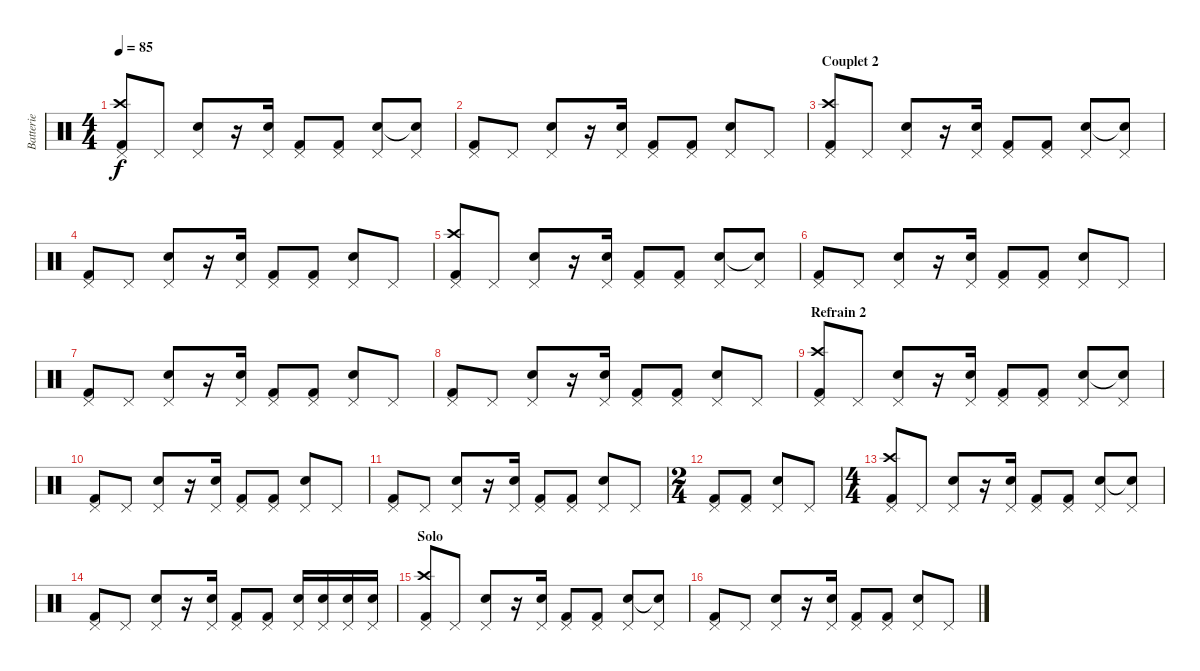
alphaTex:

\track ("Batterie" "Batterie") {instrument percussion}
\staff {score}
\articulation defaults
\ts (4 4)
\tempo 85
\clef neutral
\ks c
("Pedal Hi-Hat (hit)" "Crash high (hit)" "Kick (hit) 2").8{dy f} "Pedal Hi-Hat (hit)".8 ("Pedal Hi-Hat (hit)" "Electric Snare (hit)").8 r.16 ("Pedal Hi-Hat (hit)" "Electric Snare (hit)").16 ("Pedal Hi-Hat (hit)" "Kick (hit) 2").8 ("Pedal Hi-Hat (hit)" "Kick (hit) 2").8 ("Pedal Hi-Hat (hit)" "Electric Snare (hit)").8 ("Pedal Hi-Hat (hit)" "Snare (hit)"{t}).8 |
("Pedal Hi-Hat (hit)" "Kick (hit) 2").8 "Pedal Hi-Hat (hit)".8 ("Pedal Hi-Hat (hit)" "Electric Snare (hit)").8 r.16 ("Pedal Hi-Hat (hit)" "Electric Snare (hit)").16 ("Pedal Hi-Hat (hit)" "Kick (hit) 2").8 ("Pedal Hi-Hat (hit)" "Kick (hit) 2").8 ("Pedal Hi-Hat (hit)" "Electric Snare (hit)").8 "Pedal Hi-Hat (hit)".8 |
\section ("" "Couplet 2")
("Pedal Hi-Hat (hit)" "Crash high (hit)" "Kick (hit) 2").8 "Pedal Hi-Hat (hit)".8 ("Pedal Hi-Hat (hit)" "Electric Snare (hit)").8 r.16 ("Pedal Hi-Hat (hit)" "Electric Snare (hit)").16 ("Pedal Hi-Hat (hit)" "Kick (hit) 2").8 ("Pedal Hi-Hat (hit)" "Kick (hit) 2").8 ("Pedal Hi-Hat (hit)" "Electric Snare (hit)").8 ("Pedal Hi-Hat (hit)" "Snare (hit)"{t}).8 |
("Pedal Hi-Hat (hit)" "Kick (hit) 2").8 "Pedal Hi-Hat (hit)".8 ("Pedal Hi-Hat (hit)" "Electric Snare (hit)").8 r.16 ("Pedal Hi-Hat (hit)" "Electric Snare (hit)").16 ("Pedal Hi-Hat (hit)" "Kick (hit) 2").8 ("Pedal Hi-Hat (hit)" "Kick (hit) 2").8 ("Pedal Hi-Hat (hit)" "Electric Snare (hit)").8 "Pedal Hi-Hat (hit)".8 |
("Pedal Hi-Hat (hit)" "Crash high (hit)" "Kick (hit) 2").8 "Pedal Hi-Hat (hit)".8 ("Pedal Hi-Hat (hit)" "Electric Snare (hit)").8 r.16 ("Pedal Hi-Hat (hit)" "Electric Snare (hit)").16 ("Pedal Hi-Hat (hit)" "Kick (hit) 2").8 ("Pedal Hi-Hat (hit)" "Kick (hit) 2").8 ("Pedal Hi-Hat (hit)" "Electric Snare (hit)").8 ("Pedal Hi-Hat (hit)" "Snare (hit)"{t}).8 |
("Pedal Hi-Hat (hit)" "Kick (hit) 2").8 "Pedal Hi-Hat (hit)".8 ("Pedal Hi-Hat (hit)" "Electric Snare (hit)").8 r.16 ("Pedal Hi-Hat (hit)" "Electric Snare (hit)").16 ("Pedal Hi-Hat (hit)" "Kick (hit) 2").8 ("Pedal Hi-Hat (hit)" "Kick (hit) 2").8 ("Pedal Hi-Hat (hit)" "Electric Snare (hit)").8 "Pedal Hi-Hat (hit)".8 |
("Pedal Hi-Hat (hit)" "Kick (hit) 2").8 "Pedal Hi-Hat (hit)".8 ("Pedal Hi-Hat (hit)" "Electric Snare (hit)").8 r.16 ("Pedal Hi-Hat (hit)" "Electric Snare (hit)").16 ("Pedal Hi-Hat (hit)" "Kick (hit) 2").8 ("Pedal Hi-Hat (hit)" "Kick (hit) 2").8 ("Pedal Hi-Hat (hit)" "Electric Snare (hit)").8 "Pedal Hi-Hat (hit)".8 |
("Pedal Hi-Hat (hit)" "Kick (hit) 2").8 "Pedal Hi-Hat (hit)".8 ("Pedal Hi-Hat (hit)" "Electric Snare (hit)").8 r.16 ("Pedal Hi-Hat (hit)" "Electric Snare (hit)").16 ("Pedal Hi-Hat (hit)" "Kick (hit) 2").8 ("Pedal Hi-Hat (hit)" "Kick (hit) 2").8 ("Pedal Hi-Hat (hit)" "Electric Snare (hit)").8 "Pedal Hi-Hat (hit)".8 |
\section ("" "Refrain 2")
("Pedal Hi-Hat (hit)" "Crash high (hit)" "Kick (hit) 2").8 "Pedal Hi-Hat (hit)".8 ("Pedal Hi-Hat (hit)" "Electric Snare (hit)").8 r.16 ("Pedal Hi-Hat (hit)" "Electric Snare (hit)").16 ("Pedal Hi-Hat (hit)" "Kick (hit) 2").8 ("Pedal Hi-Hat (hit)" "Kick (hit) 2").8 ("Pedal Hi-Hat (hit)" "Electric Snare (hit)").8 ("Pedal Hi-Hat (hit)" "Snare (hit)"{t}).8 |
("Pedal Hi-Hat (hit)" "Kick (hit) 2").8 "Pedal Hi-Hat (hit)".8 ("Pedal Hi-Hat (hit)" "Electric Snare (hit)").8 r.16 ("Pedal Hi-Hat (hit)" "Electric Snare (hit)").16 ("Pedal Hi-Hat (hit)" "Kick (hit) 2").8 ("Pedal Hi-Hat (hit)" "Kick (hit) 2").8 ("Pedal Hi-Hat (hit)" "Electric Snare (hit)").8 "Pedal Hi-Hat (hit)".8 |
("Pedal Hi-Hat (hit)" "Kick (hit) 2").8 "Pedal Hi-Hat (hit)".8 ("Pedal Hi-Hat (hit)" "Electric Snare (hit)").8 r.16 ("Pedal Hi-Hat (hit)" "Electric Snare (hit)").16 ("Pedal Hi-Hat (hit)" "Kick (hit) 2").8 ("Pedal Hi-Hat (hit)" "Kick (hit) 2").8 ("Pedal Hi-Hat (hit)" "Electric Snare (hit)").8 "Pedal Hi-Hat (hit)".8 |
\ts (2 4)
("Pedal Hi-Hat (hit)" "Kick (hit) 2").8 ("Pedal Hi-Hat (hit)" "Kick (hit) 2").8 ("Pedal Hi-Hat (hit)" "Electric Snare (hit)").8 "Pedal Hi-Hat (hit)".8 |
\ts (4 4)
("Pedal Hi-Hat (hit)" "Crash high (hit)" "Kick (hit) 2").8 "Pedal Hi-Hat (hit)".8 ("Pedal Hi-Hat (hit)" "Electric Snare (hit)").8 r.16 ("Pedal Hi-Hat (hit)" "Electric Snare (hit)").16 ("Pedal Hi-Hat (hit)" "Kick (hit) 2").8 ("Pedal Hi-Hat (hit)" "Kick (hit) 2").8 ("Pedal Hi-Hat (hit)" "Electric Snare (hit)").8 ("Pedal Hi-Hat (hit)" "Snare (hit)"{t}).8 |
("Pedal Hi-Hat (hit)" "Kick (hit) 2").8 "Pedal Hi-Hat (hit)".8 ("Pedal Hi-Hat (hit)" "Electric Snare (hit)").8 r.16 ("Pedal Hi-Hat (hit)" "Electric Snare (hit)").16 ("Pedal Hi-Hat (hit)" "Kick (hit) 2").8 ("Pedal Hi-Hat (hit)" "Kick (hit) 2").8 ("Pedal Hi-Hat (hit)" "Electric Snare (hit)").16 ("Pedal Hi-Hat (hit)" "Electric Snare (hit)").16 ("Pedal Hi-Hat (hit)" "Electric Snare (hit)").16 ("Pedal Hi-Hat (hit)" "Electric Snare (hit)").16 |
\section ("" "Solo")
("Pedal Hi-Hat (hit)" "Crash high (hit)" "Kick (hit) 2").8 "Pedal Hi-Hat (hit)".8 ("Pedal Hi-Hat (hit)" "Electric Snare (hit)").8 r.16 ("Pedal Hi-Hat (hit)" "Electric Snare (hit)").16 ("Pedal Hi-Hat (hit)" "Kick (hit) 2").8 ("Pedal Hi-Hat (hit)" "Kick (hit) 2").8 ("Pedal Hi-Hat (hit)" "Electric Snare (hit)").8 ("Pedal Hi-Hat (hit)" "Snare (hit)"{t}).8 |
("Pedal Hi-Hat (hit)" "Kick (hit) 2").8 "Pedal Hi-Hat (hit)".8 ("Pedal Hi-Hat (hit)" "Electric Snare (hit)").8 r.16 ("Pedal Hi-Hat (hit)" "Electric Snare (hit)").16 ("Pedal Hi-Hat (hit)" "Kick (hit) 2").8 ("Pedal Hi-Hat (hit)" "Kick (hit) 2").8 ("Pedal Hi-Hat (hit)" "Electric Snare (hit)").8 "Pedal Hi-Hat (hit)".8
